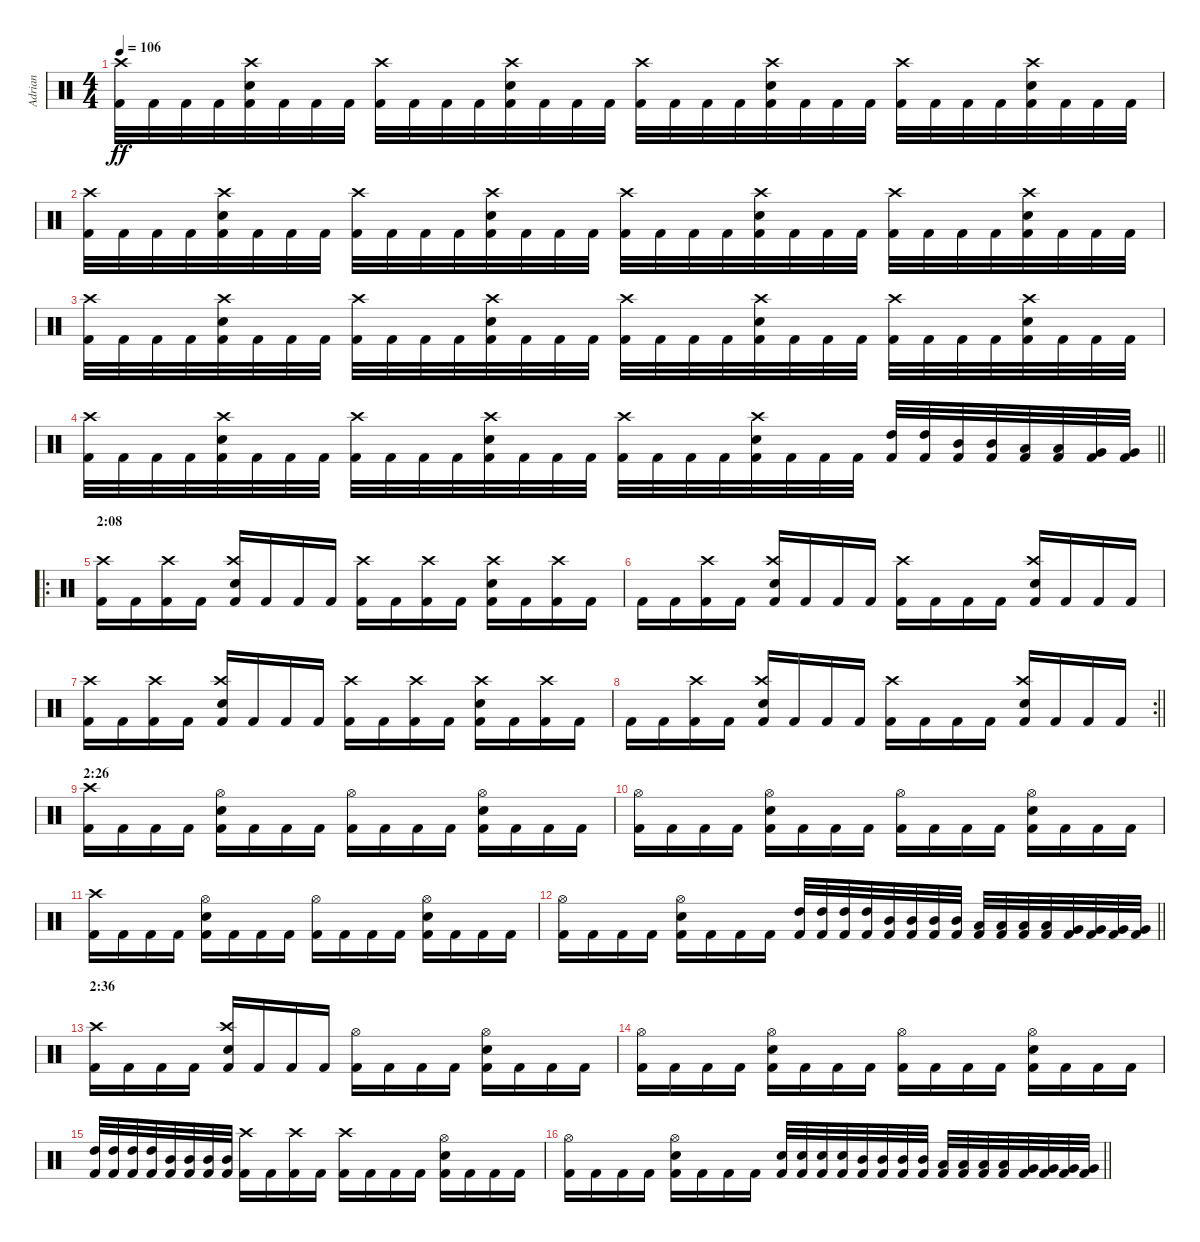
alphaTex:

\track ("Adrian" "Adrian") {instrument percussion}
\staff {score}
\articulation defaults
\ts (4 4)
\tempo 106
\clef neutral
\ks c
("Kick (hit) 2" "Crash high (hit)").32{dy ff} "Kick (hit) 2".32 "Kick (hit) 2".32 "Kick (hit) 2".32 ("Kick (hit) 2" "Snare (hit) 2" "Crash high (hit)").32 "Kick (hit) 2".32 "Kick (hit) 2".32 "Kick (hit) 2".32 ("Kick (hit) 2" "Crash high (hit)").32 "Kick (hit) 2".32 "Kick (hit) 2".32 "Kick (hit) 2".32 ("Kick (hit) 2" "Snare (hit) 2" "Crash high (hit)").32 "Kick (hit) 2".32 "Kick (hit) 2".32 "Kick (hit) 2".32 ("Kick (hit) 2" "Crash high (hit)").32 "Kick (hit) 2".32 "Kick (hit) 2".32 "Kick (hit) 2".32 ("Kick (hit) 2" "Snare (hit) 2" "Crash high (hit)").32 "Kick (hit) 2".32 "Kick (hit) 2".32 "Kick (hit) 2".32 ("Kick (hit) 2" "Crash high (hit)").32 "Kick (hit) 2".32 "Kick (hit) 2".32 "Kick (hit) 2".32 ("Kick (hit) 2" "Snare (hit) 2" "Crash high (hit)").32 "Kick (hit) 2".32 "Kick (hit) 2".32 "Kick (hit) 2".32 |
("Kick (hit) 2" "Crash high (hit)").32 "Kick (hit) 2".32 "Kick (hit) 2".32 "Kick (hit) 2".32 ("Kick (hit) 2" "Snare (hit) 2" "Crash high (hit)").32 "Kick (hit) 2".32 "Kick (hit) 2".32 "Kick (hit) 2".32 ("Kick (hit) 2" "Crash high (hit)").32 "Kick (hit) 2".32 "Kick (hit) 2".32 "Kick (hit) 2".32 ("Kick (hit) 2" "Snare (hit) 2" "Crash high (hit)").32 "Kick (hit) 2".32 "Kick (hit) 2".32 "Kick (hit) 2".32 ("Kick (hit) 2" "Crash high (hit)").32 "Kick (hit) 2".32 "Kick (hit) 2".32 "Kick (hit) 2".32 ("Kick (hit) 2" "Snare (hit) 2" "Crash high (hit)").32 "Kick (hit) 2".32 "Kick (hit) 2".32 "Kick (hit) 2".32 ("Kick (hit) 2" "Crash high (hit)").32 "Kick (hit) 2".32 "Kick (hit) 2".32 "Kick (hit) 2".32 ("Kick (hit) 2" "Snare (hit) 2" "Crash high (hit)").32 "Kick (hit) 2".32 "Kick (hit) 2".32 "Kick (hit) 2".32 |
("Kick (hit) 2" "Crash high (hit)").32 "Kick (hit) 2".32 "Kick (hit) 2".32 "Kick (hit) 2".32 ("Kick (hit) 2" "Snare (hit) 2" "Crash high (hit)").32 "Kick (hit) 2".32 "Kick (hit) 2".32 "Kick (hit) 2".32 ("Kick (hit) 2" "Crash high (hit)").32 "Kick (hit) 2".32 "Kick (hit) 2".32 "Kick (hit) 2".32 ("Kick (hit) 2" "Snare (hit) 2" "Crash high (hit)").32 "Kick (hit) 2".32 "Kick (hit) 2".32 "Kick (hit) 2".32 ("Kick (hit) 2" "Crash high (hit)").32 "Kick (hit) 2".32 "Kick (hit) 2".32 "Kick (hit) 2".32 ("Kick (hit) 2" "Snare (hit) 2" "Crash high (hit)").32 "Kick (hit) 2".32 "Kick (hit) 2".32 "Kick (hit) 2".32 ("Kick (hit) 2" "Crash high (hit)").32 "Kick (hit) 2".32 "Kick (hit) 2".32 "Kick (hit) 2".32 ("Kick (hit) 2" "Snare (hit) 2" "Crash high (hit)").32 "Kick (hit) 2".32 "Kick (hit) 2".32 "Kick (hit) 2".32 |
\barLineRight lightlight
("Kick (hit) 2" "Crash high (hit)").32 "Kick (hit) 2".32 "Kick (hit) 2".32 "Kick (hit) 2".32 ("Kick (hit) 2" "Snare (hit) 2" "Crash high (hit)").32 "Kick (hit) 2".32 "Kick (hit) 2".32 "Kick (hit) 2".32 ("Kick (hit) 2" "Crash high (hit)").32 "Kick (hit) 2".32 "Kick (hit) 2".32 "Kick (hit) 2".32 ("Kick (hit) 2" "Snare (hit) 2" "Crash high (hit)").32 "Kick (hit) 2".32 "Kick (hit) 2".32 "Kick (hit) 2".32 ("Kick (hit) 2" "Crash high (hit)").32 "Kick (hit) 2".32 "Kick (hit) 2".32 "Kick (hit) 2".32 ("Kick (hit) 2" "Snare (hit) 2" "Crash high (hit)").32 "Kick (hit) 2".32 "Kick (hit) 2".32 "Kick (hit) 2".32 ("Kick (hit) 2" "High Tom (hit)").32 ("Kick (hit) 2" "High Tom (hit)").32 ("Kick (hit) 2" "Mid Tom (hit)").32 ("Kick (hit) 2" "Mid Tom (hit)").32 ("Kick (hit) 2" "Low Tom (hit)").32 ("Kick (hit) 2" "Low Tom (hit)").32 ("Kick (hit) 2" "Very Low Tom (hit)").32 ("Kick (hit) 2" "Very Low Tom (hit)").32 |
\ro
\section ("" "2:08")
("Kick (hit) 2" "Crash high (hit)").16 "Kick (hit) 2".16 ("Kick (hit) 2" "Crash high (hit)").16 "Kick (hit) 2".16 ("Kick (hit) 2" "Snare (hit) 2" "Crash high (hit)").16 "Kick (hit) 2".16 "Kick (hit) 2".16 "Kick (hit) 2".16 ("Kick (hit) 2" "Crash high (hit)").16 "Kick (hit) 2".16 ("Kick (hit) 2" "Crash high (hit)").16 "Kick (hit) 2".16 ("Kick (hit) 2" "Snare (hit) 2" "Crash high (hit)").16 "Kick (hit) 2".16 ("Kick (hit) 2" "Crash high (hit)").16 "Kick (hit) 2".16 |
"Kick (hit) 2".16 "Kick (hit) 2".16 ("Kick (hit) 2" "Crash high (hit)").16 "Kick (hit) 2".16 ("Kick (hit) 2" "Snare (hit) 2" "Crash high (hit)").16 "Kick (hit) 2".16 "Kick (hit) 2".16 "Kick (hit) 2".16 ("Kick (hit) 2" "Crash high (hit)").16 "Kick (hit) 2".16 "Kick (hit) 2".16 "Kick (hit) 2".16 ("Kick (hit) 2" "Snare (hit) 2" "Crash high (hit)").16 "Kick (hit) 2".16 "Kick (hit) 2".16 "Kick (hit) 2".16 |
("Kick (hit) 2" "Crash high (hit)").16 "Kick (hit) 2".16 ("Kick (hit) 2" "Crash high (hit)").16 "Kick (hit) 2".16 ("Kick (hit) 2" "Snare (hit) 2" "Crash high (hit)").16 "Kick (hit) 2".16 "Kick (hit) 2".16 "Kick (hit) 2".16 ("Kick (hit) 2" "Crash high (hit)").16 "Kick (hit) 2".16 ("Kick (hit) 2" "Crash high (hit)").16 "Kick (hit) 2".16 ("Kick (hit) 2" "Snare (hit) 2" "Crash high (hit)").16 "Kick (hit) 2".16 ("Kick (hit) 2" "Crash high (hit)").16 "Kick (hit) 2".16 |
\rc 2
\barLineRight lightlight "Kick (hit) 2".16 "Kick (hit) 2".16
("Kick (hit) 2" "Crash high (hit)").16 "Kick (hit) 2".16 ("Kick (hit) 2" "Snare (hit) 2" "Crash high (hit)").16 "Kick (hit) 2".16 "Kick (hit) 2".16 "Kick (hit) 2".16 ("Kick (hit) 2" "Crash high (hit)").16 "Kick (hit) 2".16 "Kick (hit) 2".16 "Kick (hit) 2".16 ("Kick (hit) 2" "Snare (hit) 2" "Crash high (hit)").16 "Kick (hit) 2".16 "Kick (hit) 2".16 "Kick (hit) 2".16 |
\section ("" "2:26")
("Kick (hit) 2" "Crash high (hit)").16 "Kick (hit) 2".16 "Kick (hit) 2".16 "Kick (hit) 2".16 ("Kick (hit) 2" "Snare (hit) 2" "Hi-Hat (open)").16 "Kick (hit) 2".16 "Kick (hit) 2".16 "Kick (hit) 2".16 ("Kick (hit) 2" "Hi-Hat (open)").16 "Kick (hit) 2".16 "Kick (hit) 2".16 "Kick (hit) 2".16 ("Kick (hit) 2" "Snare (hit) 2" "Hi-Hat (open)").16 "Kick (hit) 2".16 "Kick (hit) 2".16 "Kick (hit) 2".16 |
("Kick (hit) 2" "Hi-Hat (open)").16 "Kick (hit) 2".16 "Kick (hit) 2".16 "Kick (hit) 2".16 ("Kick (hit) 2" "Snare (hit) 2" "Hi-Hat (open)").16 "Kick (hit) 2".16 "Kick (hit) 2".16 "Kick (hit) 2".16 ("Kick (hit) 2" "Hi-Hat (open)").16 "Kick (hit) 2".16 "Kick (hit) 2".16 "Kick (hit) 2".16 ("Kick (hit) 2" "Snare (hit) 2" "Hi-Hat (open)").16 "Kick (hit) 2".16 "Kick (hit) 2".16 "Kick (hit) 2".16 |
("Kick (hit) 2" "Crash high (hit)").16 "Kick (hit) 2".16 "Kick (hit) 2".16 "Kick (hit) 2".16 ("Kick (hit) 2" "Snare (hit) 2" "Hi-Hat (open)").16 "Kick (hit) 2".16 "Kick (hit) 2".16 "Kick (hit) 2".16 ("Kick (hit) 2" "Hi-Hat (open)").16 "Kick (hit) 2".16 "Kick (hit) 2".16 "Kick (hit) 2".16 ("Kick (hit) 2" "Snare (hit) 2" "Hi-Hat (open)").16 "Kick (hit) 2".16 "Kick (hit) 2".16 "Kick (hit) 2".16 |
\barLineRight lightlight
("Kick (hit) 2" "Hi-Hat (open)").16 "Kick (hit) 2".16 "Kick (hit) 2".16 "Kick (hit) 2".16 ("Kick (hit) 2" "Snare (hit) 2" "Hi-Hat (open)").16 "Kick (hit) 2".16 "Kick (hit) 2".16 "Kick (hit) 2".16 ("Kick (hit) 2" "High Tom (hit)").32 ("Kick (hit) 2" "High Tom (hit)").32 ("Kick (hit) 2" "High Tom (hit)").32 ("Kick (hit) 2" "High Tom (hit)").32 ("Kick (hit) 2" "Mid Tom (hit)").32 ("Kick (hit) 2" "Mid Tom (hit)").32 ("Kick (hit) 2" "Mid Tom (hit)").32 ("Kick (hit) 2" "Mid Tom (hit)").32 ("Kick (hit) 2" "Low Tom (hit)").32 ("Kick (hit) 2" "Low Tom (hit)").32 ("Kick (hit) 2" "Low Tom (hit)").32 ("Kick (hit) 2" "Low Tom (hit)").32 ("Kick (hit) 2" "Very Low Tom (hit)").32 ("Kick (hit) 2" "Very Low Tom (hit)").32 ("Kick (hit) 2" "Very Low Tom (hit)").32 ("Kick (hit) 2" "Very Low Tom (hit)").32 |
\section ("" "2:36")
("Kick (hit) 2" "Crash high (hit)").16 "Kick (hit) 2".16 "Kick (hit) 2".16 "Kick (hit) 2".16 ("Kick (hit) 2" "Snare (hit) 2" "Crash high (hit)").16 "Kick (hit) 2".16 "Kick (hit) 2".16 "Kick (hit) 2".16 ("Kick (hit) 2" "Hi-Hat (open)").16 "Kick (hit) 2".16 "Kick (hit) 2".16 "Kick (hit) 2".16 ("Kick (hit) 2" "Snare (hit) 2" "Hi-Hat (open)").16 "Kick (hit) 2".16 "Kick (hit) 2".16 "Kick (hit) 2".16 |
("Kick (hit) 2" "Hi-Hat (open)").16 "Kick (hit) 2".16 "Kick (hit) 2".16 "Kick (hit) 2".16 ("Kick (hit) 2" "Snare (hit) 2" "Hi-Hat (open)").16 "Kick (hit) 2".16 "Kick (hit) 2".16 "Kick (hit) 2".16 ("Kick (hit) 2" "Hi-Hat (open)").16 "Kick (hit) 2".16 "Kick (hit) 2".16 "Kick (hit) 2".16 ("Kick (hit) 2" "Snare (hit) 2" "Hi-Hat (open)").16 "Kick (hit) 2".16 "Kick (hit) 2".16 "Kick (hit) 2".16 |
("Kick (hit) 2" "High Tom (hit)").32 ("Kick (hit) 2" "High Tom (hit)").32 ("Kick (hit) 2" "High Tom (hit)").32 ("Kick (hit) 2" "High Tom (hit)").32 ("Kick (hit) 2" "Mid Tom (hit)").32 ("Kick (hit) 2" "Mid Tom (hit)").32 ("Kick (hit) 2" "Mid Tom (hit)").32 ("Kick (hit) 2" "Mid Tom (hit)").32 ("Kick (hit) 2" "Crash high (hit)").16 "Kick (hit) 2".16 ("Kick (hit) 2" "Crash high (hit)").16 "Kick (hit) 2".16 ("Kick (hit) 2" "Crash high (hit)").16 "Kick (hit) 2".16 "Kick (hit) 2".16 "Kick (hit) 2".16 ("Kick (hit) 2" "Snare (hit) 2" "Hi-Hat (open)").16 "Kick (hit) 2".16 "Kick (hit) 2".16 "Kick (hit) 2".16 |
\barLineRight lightlight
("Kick (hit) 2" "Hi-Hat (open)").16 "Kick (hit) 2".16 "Kick (hit) 2".16 "Kick (hit) 2".16 ("Kick (hit) 2" "Snare (hit) 2" "Hi-Hat (open)").16 "Kick (hit) 2".16 "Kick (hit) 2".16 "Kick (hit) 2".16 ("Kick (hit) 2" "Snare (hit) 2").32 ("Kick (hit) 2" "Snare (hit) 2").32 ("Kick (hit) 2" "Snare (hit) 2").32 ("Kick (hit) 2" "Snare (hit) 2").32 ("Kick (hit) 2" "Mid Tom (hit)").32 ("Kick (hit) 2" "Mid Tom (hit)").32 ("Kick (hit) 2" "Mid Tom (hit)").32 ("Kick (hit) 2" "Mid Tom (hit)").32 ("Kick (hit) 2" "Low Tom (hit)").32 ("Kick (hit) 2" "Low Tom (hit)").32 ("Kick (hit) 2" "Low Tom (hit)").32 ("Kick (hit) 2" "Low Tom (hit)").32 ("Kick (hit) 2" "Very Low Tom (hit)").32 ("Kick (hit) 2" "Very Low Tom (hit)").32 ("Kick (hit) 2" "Very Low Tom (hit)").32 ("Kick (hit) 2" "Very Low Tom (hit)").32
